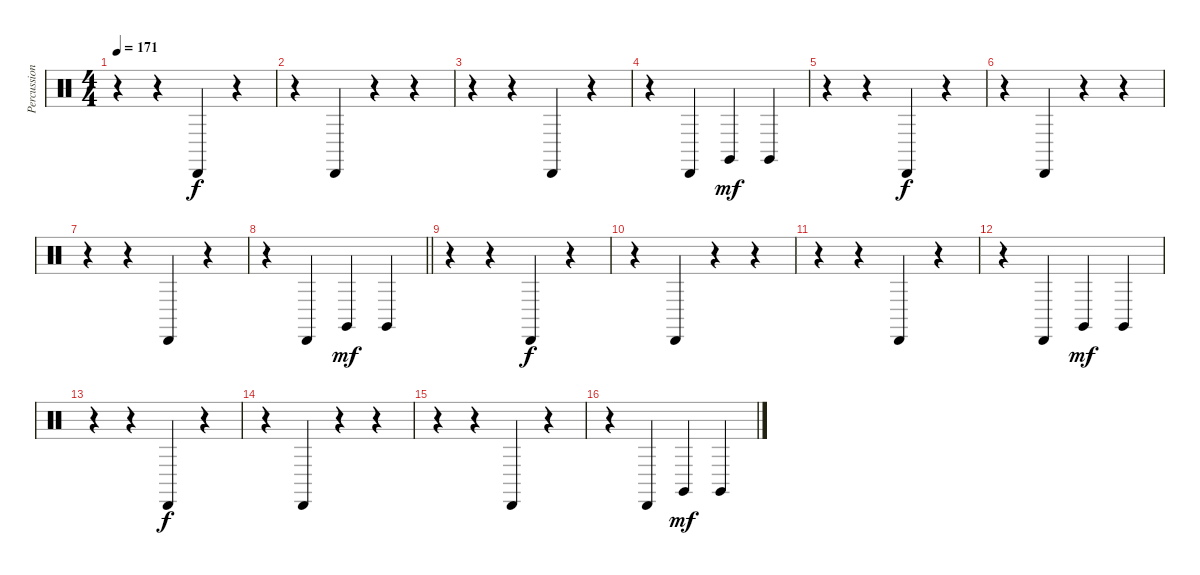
\track ("Percussion" "Percussion") {instrument percussion}
\staff {score}
\articulation defaults
\ts (4 4)
\tempo 171
\clef neutral
\ks c
r.4{dy f} r.4 "Cabasa (hit)".4 r.4 |
r.4 "Cabasa (hit)".4 r.4 r.4 |
r.4 r.4 "Cabasa (hit)".4 r.4 |
r.4 "Cabasa (hit)".4 "Claves (hit)".4{dy mf} "Claves (hit)".4 |
r.4 r.4 "Cabasa (hit)".4{dy f} r.4 |
r.4 "Cabasa (hit)".4 r.4 r.4 |
r.4 r.4 "Cabasa (hit)".4 r.4 |
\barLineRight lightlight
r.4 "Cabasa (hit)".4 "Claves (hit)".4{dy mf} "Claves (hit)".4 |
\section ("" "")
r.4 r.4 "Cabasa (hit)".4{dy f} r.4 |
r.4 "Cabasa (hit)".4 r.4 r.4 |
r.4 r.4 "Cabasa (hit)".4 r.4 |
r.4 "Cabasa (hit)".4 "Claves (hit)".4{dy mf} "Claves (hit)".4 |
r.4 r.4 "Cabasa (hit)".4{dy f} r.4 |
r.4 "Cabasa (hit)".4 r.4 r.4 |
r.4 r.4 "Cabasa (hit)".4 r.4 |
r.4 "Cabasa (hit)".4 "Claves (hit)".4{dy mf} "Claves (hit)".4
